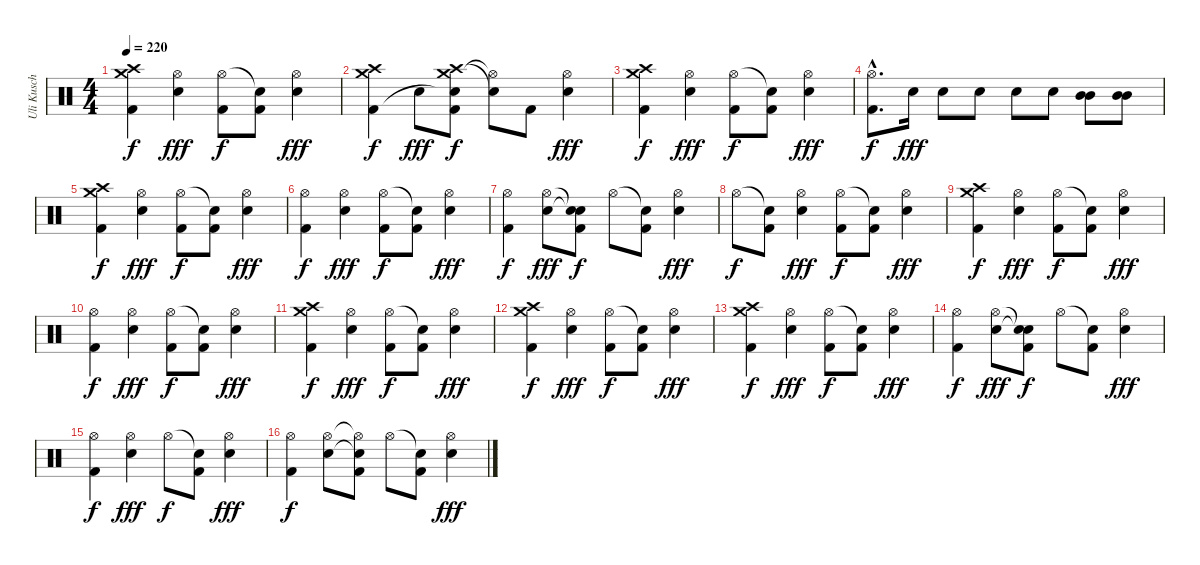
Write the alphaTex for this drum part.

\track ("Uli Kusch" "Uli Kusch") {instrument percussion}
\staff {score}
\articulation defaults
\ts (4 4)
\tempo 220
\clef neutral
\ks c
("Crash medium (hit)" "Crash high (hit)" "Kick (hit) 2").4{dy f} ("Hi-Hat (open)" "Electric Snare (hit)").4{dy fff} ("Hi-Hat (open)" "Kick (hit) 2").8{dy f} ("Snare (hit)"{t} "Kick (hit) 2").8 ("Hi-Hat (open)" "Electric Snare (hit)").4{dy fff} |
("Crash high (hit)" "Crash medium (hit)" "Kick (hit) 2").4{dy f} "Electric Snare (hit)".8{dy fff} ("Crash medium (hit)" "Crash high (hit)" "Snare (hit)"{t} "Kick (hit) 2").8{dy f} ("Hi-Hat (open)"{t} "Snare (hit)"{t}).8 "Kick (hit) 2".8 ("Hi-Hat (open)" "Electric Snare (hit)").4{dy fff} |
("Crash high (hit)" "Crash medium (hit)" "Kick (hit) 2").4{dy f} ("Hi-Hat (open)" "Electric Snare (hit)").4{dy fff} ("Hi-Hat (open)" "Kick (hit) 2").8{dy f} ("Snare (hit)"{t} "Kick (hit) 2").8 ("Hi-Hat (open)" "Electric Snare (hit)").4{dy fff} |
("Hi-Hat (open)"{hac} "Kick (hit) 2"{hac}).8{d dy f} "Electric Snare (hit)".16{dy fff} "Electric Snare (hit)".8 "Electric Snare (hit)".8 "Electric Snare (hit)".8 "Electric Snare (hit)".8 ("Mid Tom (hit)" "Mid Tom (hit)").8 ("Mid Tom (hit)" "Mid Tom (hit)").8 |
("Crash medium (hit)" "Crash high (hit)" "Kick (hit) 2").4{dy f} ("Hi-Hat (open)" "Electric Snare (hit)").4{dy fff} ("Hi-Hat (open)" "Kick (hit) 2").8{dy f} ("Snare (hit)"{t} "Kick (hit) 2").8 ("Hi-Hat (open)" "Electric Snare (hit)").4{dy fff} |
("Hi-Hat (open)" "Kick (hit) 2").4{dy f} ("Hi-Hat (open)" "Electric Snare (hit)").4{dy fff} ("Hi-Hat (open)" "Kick (hit) 2").8{dy f} ("Snare (hit)"{t} "Kick (hit) 2").8 ("Hi-Hat (open)" "Electric Snare (hit)").4{dy fff} |
("Hi-Hat (open)" "Kick (hit) 2").4{dy f} ("Hi-Hat (open)" "Electric Snare (hit)").8{dy fff} ("Snare (hit)"{t} "Snare (hit)"{t} "Kick (hit) 2").8{dy f} "Hi-Hat (open)".8 ("Snare (hit)"{t} "Kick (hit) 2").8 ("Hi-Hat (open)" "Electric Snare (hit)").4{dy fff} |
"Hi-Hat (open)".8{dy f} ("Snare (hit)"{t} "Kick (hit) 2").8 ("Hi-Hat (open)" "Electric Snare (hit)").4{dy fff} ("Hi-Hat (open)" "Kick (hit) 2").8{dy f} ("Snare (hit)"{t} "Kick (hit) 2").8 ("Hi-Hat (open)" "Electric Snare (hit)").4{dy fff} |
("Crash high (hit)" "Crash medium (hit)" "Kick (hit) 2").4{dy f} ("Hi-Hat (open)" "Electric Snare (hit)").4{dy fff} ("Hi-Hat (open)" "Kick (hit) 2").8{dy f} ("Snare (hit)"{t} "Kick (hit) 2").8 ("Hi-Hat (open)" "Electric Snare (hit)").4{dy fff} |
("Hi-Hat (open)" "Kick (hit) 2").4{dy f} ("Hi-Hat (open)" "Electric Snare (hit)").4{dy fff} ("Hi-Hat (open)" "Kick (hit) 2").8{dy f} ("Snare (hit)"{t} "Kick (hit) 2").8 ("Hi-Hat (open)" "Electric Snare (hit)").4{dy fff} |
("Crash high (hit)" "Crash medium (hit)" "Kick (hit) 2").4{dy f} ("Hi-Hat (open)" "Electric Snare (hit)").4{dy fff} ("Hi-Hat (open)" "Kick (hit) 2").8{dy f} ("Snare (hit)"{t} "Kick (hit) 2").8 ("Hi-Hat (open)" "Electric Snare (hit)").4{dy fff} |
("Crash high (hit)" "Crash medium (hit)" "Kick (hit) 2").4{dy f} ("Hi-Hat (open)" "Electric Snare (hit)").4{dy fff} ("Hi-Hat (open)" "Kick (hit) 2").8{dy f} ("Snare (hit)"{t} "Kick (hit) 2").8 ("Hi-Hat (open)" "Electric Snare (hit)").4{dy fff} |
("Crash high (hit)" "Crash medium (hit)" "Kick (hit) 2").4{dy f} ("Hi-Hat (open)" "Electric Snare (hit)").4{dy fff} ("Hi-Hat (open)" "Kick (hit) 2").8{dy f} ("Snare (hit)"{t} "Kick (hit) 2").8 ("Hi-Hat (open)" "Electric Snare (hit)").4{dy fff} |
("Hi-Hat (open)" "Kick (hit) 2").4{dy f} ("Hi-Hat (open)" "Electric Snare (hit)").8{dy fff} ("Snare (hit)"{t} "Snare (hit)"{t} "Kick (hit) 2").8{dy f} "Hi-Hat (open)".8 ("Snare (hit)"{t} "Kick (hit) 2").8 ("Hi-Hat (open)" "Electric Snare (hit)").4{dy fff} |
("Hi-Hat (open)" "Kick (hit) 2").4{dy f} ("Hi-Hat (open)" "Electric Snare (hit)").4{dy fff} "Hi-Hat (open)".8{dy f} ("Snare (hit)"{t} "Kick (hit) 2").8 ("Hi-Hat (open)" "Electric Snare (hit)").4{dy fff} |
("Hi-Hat (open)" "Kick (hit) 2").4{dy f} ("Hi-Hat (open)" "Electric Snare (hit)").8 ("Hi-Hat (open)"{t} "Electric Snare (hit)"{t} "Kick (hit) 2").8 "Hi-Hat (open)".8 ("Snare (hit)"{t} "Kick (hit) 2").8 ("Hi-Hat (open)" "Electric Snare (hit)").4{dy fff}
